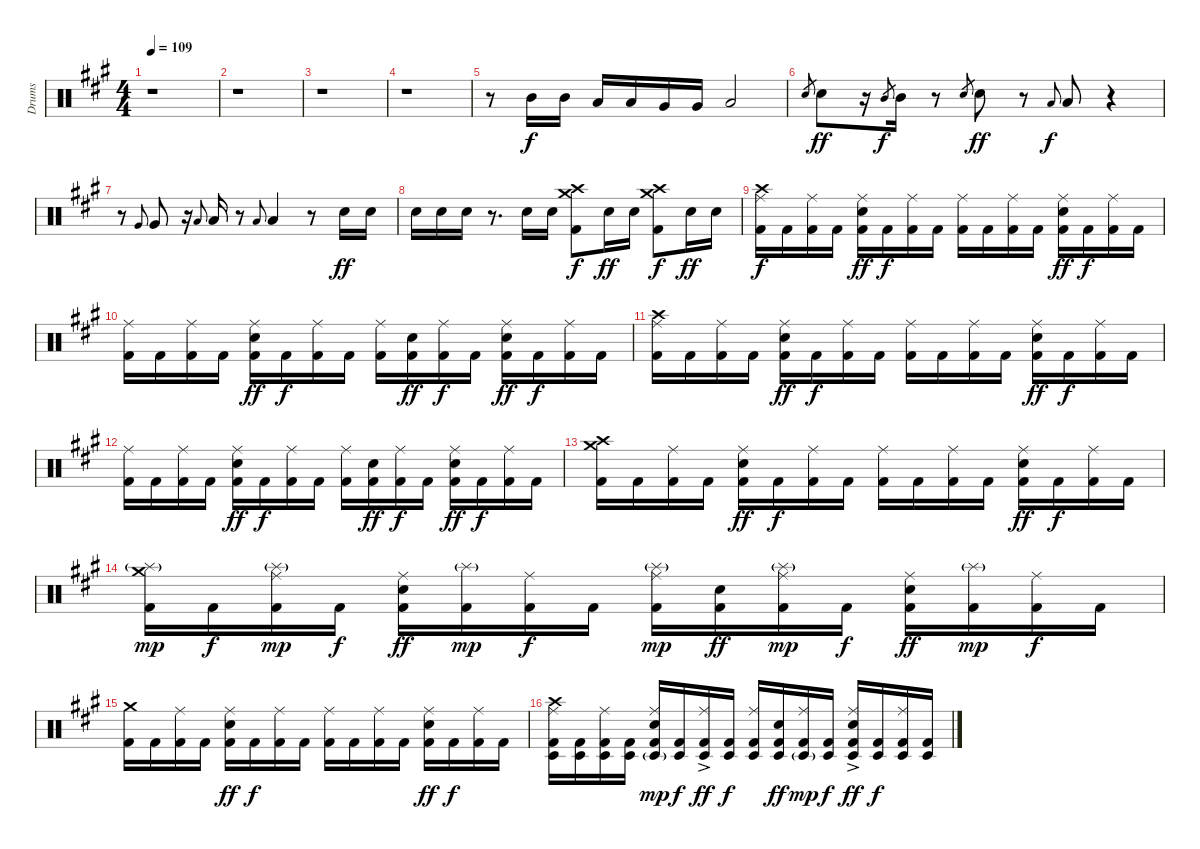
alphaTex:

\track ("Drums" "Drums") {instrument percussion}
\staff {score}
\articulation defaults
\ts (4 4)
\tempo 109
\clef neutral
\ks f#minor
r.1{dy f} |
r.1 |
r.1 |
r.1 |
r.8 "Mid Tom (hit)".16 "Mid Tom (hit)".16 "Low Tom (hit)".16 "Low Tom (hit)".16 "Very Low Tom (hit)".16 "Very Low Tom (hit)".16 "Low Floor Tom (hit)".2 |
"Electric Snare (hit)".8{gr} "Electric Snare (hit)".8{dy ff} r.16 "Mid Tom (hit)".8{gr dy f} "Mid Tom (hit)".16 r.8 "Electric Snare (hit)".8{gr} "Electric Snare (hit)".8{dy ff} r.8 "Low Tom (hit)".8{gr onbeat dy f} "Low Tom (hit)".8 r.4 |
r.8 "Very Low Tom (hit)".8{gr onbeat} "Very Low Tom (hit)".8 r.16 "Low Floor Tom (hit)".8{gr onbeat} "Low Floor Tom (hit)".16 r.8 "Low Floor Tom (hit)".8{gr onbeat} "Low Floor Tom (hit)".4 r.8 "Electric Snare (hit)".16{dy ff} "Electric Snare (hit)".16 |
"Electric Snare (hit)".16 "Electric Snare (hit)".16 "Electric Snare (hit)".16 r.8{d} "Electric Snare (hit)".16 "Electric Snare (hit)".16 ("Crash medium (hit)" "Crash high (hit)" "Kick (hit) 2").8{dy f} "Electric Snare (hit)".16{dy ff} "Electric Snare (hit)".16 ("Crash medium (hit)" "Crash high (hit)" "Kick (hit) 2").8{dy f} "Electric Snare (hit)".16{dy ff} "Electric Snare (hit)".16 |
("Ride (middle)" "Crash high (hit)" "Kick (hit) 2").16{dy f} "Kick (hit) 2".16 ("Ride (middle)" "Kick (hit) 2").16 "Kick (hit) 2".16 ("Ride (middle)" "Electric Snare (hit)" "Kick (hit) 2").16{dy ff} "Kick (hit) 2".16{dy f} ("Ride (middle)" "Kick (hit) 2").16 "Kick (hit) 2".16 ("Ride (middle)" "Kick (hit) 2").16 "Kick (hit) 2".16 ("Ride (middle)" "Kick (hit) 2").16 "Kick (hit) 2".16 ("Ride (middle)" "Electric Snare (hit)" "Kick (hit) 2").16{dy ff} "Kick (hit) 2".16{dy f} ("Ride (middle)" "Kick (hit) 2").16 "Kick (hit) 2".16 |
("Ride (middle)" "Kick (hit) 2").16 "Kick (hit) 2".16 ("Ride (middle)" "Kick (hit) 2").16 "Kick (hit) 2".16 ("Ride (middle)" "Electric Snare (hit)" "Kick (hit) 2").16{dy ff} "Kick (hit) 2".16{dy f} ("Ride (middle)" "Kick (hit) 2").16 "Kick (hit) 2".16 ("Ride (middle)" "Kick (hit) 2").16 ("Electric Snare (hit)" "Kick (hit) 2").16{dy ff} ("Ride (middle)" "Kick (hit) 2").16{dy f} "Kick (hit) 2".16 ("Ride (middle)" "Electric Snare (hit)" "Kick (hit) 2").16{dy ff} "Kick (hit) 2".16{dy f} ("Ride (middle)" "Kick (hit) 2").16 "Kick (hit) 2".16 |
("Ride (middle)" "Crash high (hit)" "Kick (hit) 2").16 "Kick (hit) 2".16 ("Ride (middle)" "Kick (hit) 2").16 "Kick (hit) 2".16 ("Ride (middle)" "Electric Snare (hit)" "Kick (hit) 2").16{dy ff} "Kick (hit) 2".16{dy f} ("Ride (middle)" "Kick (hit) 2").16 "Kick (hit) 2".16 ("Ride (middle)" "Kick (hit) 2").16 "Kick (hit) 2".16 ("Ride (middle)" "Kick (hit) 2").16 "Kick (hit) 2".16 ("Ride (middle)" "Electric Snare (hit)" "Kick (hit) 2").16{dy ff} "Kick (hit) 2".16{dy f} ("Ride (middle)" "Kick (hit) 2").16 "Kick (hit) 2".16 |
("Ride (middle)" "Kick (hit) 2").16 "Kick (hit) 2".16 ("Ride (middle)" "Kick (hit) 2").16 "Kick (hit) 2".16 ("Ride (middle)" "Electric Snare (hit)" "Kick (hit) 2").16{dy ff} "Kick (hit) 2".16{dy f} ("Ride (middle)" "Kick (hit) 2").16 "Kick (hit) 2".16 ("Ride (middle)" "Kick (hit) 2").16 ("Electric Snare (hit)" "Kick (hit) 2").16{dy ff} ("Ride (middle)" "Kick (hit) 2").16{dy f} "Kick (hit) 2".16 ("Ride (middle)" "Electric Snare (hit)" "Kick (hit) 2").16{dy ff} "Kick (hit) 2".16{dy f} ("Ride (middle)" "Kick (hit) 2").16 "Kick (hit) 2".16 |
("Crash medium (hit)" "Crash high (hit)" "Kick (hit) 2").16 "Kick (hit) 2".16 ("Ride (middle)" "Kick (hit) 2").16 "Kick (hit) 2".16 ("Ride (middle)" "Electric Snare (hit)" "Kick (hit) 2").16{dy ff} "Kick (hit) 2".16{dy f} ("Ride (middle)" "Kick (hit) 2").16 "Kick (hit) 2".16 ("Ride (middle)" "Kick (hit) 2").16 "Kick (hit) 2".16 ("Ride (middle)" "Kick (hit) 2").16 "Kick (hit) 2".16 ("Ride (middle)" "Electric Snare (hit)" "Kick (hit) 2").16{dy ff} "Kick (hit) 2".16{dy f} ("Ride (middle)" "Kick (hit) 2").16 "Kick (hit) 2".16 |
("Crash medium (hit)" "Splash (hit)"{g} "Kick (hit) 2").16{dy mp} "Kick (hit) 2".16{dy f} ("Ride (middle)" "Splash (hit)"{g} "Kick (hit) 2").16{dy mp} "Kick (hit) 2".16{dy f} ("Ride (middle)" "Electric Snare (hit)" "Kick (hit) 2").16{dy ff} ("Splash (hit)"{g} "Kick (hit) 2").16{dy mp} ("Ride (middle)" "Kick (hit) 2").16{dy f} "Kick (hit) 2".16 ("Ride (middle)" "Splash (hit)"{g} "Kick (hit) 2").16{dy mp} ("Electric Snare (hit)" "Kick (hit) 2").16{dy ff} ("Ride (middle)" "Splash (hit)"{g} "Kick (hit) 2").16{dy mp} "Kick (hit) 2".16{dy f} ("Ride (middle)" "Electric Snare (hit)" "Kick (hit) 2").16{dy ff} ("Splash (hit)"{g} "Kick (hit) 2").16{dy mp} ("Ride (middle)" "Kick (hit) 2").16{dy f} "Kick (hit) 2".16 |
("Crash medium (hit)" "Kick (hit) 2").16 "Kick (hit) 2".16 ("Ride (middle)" "Kick (hit) 2").16 "Kick (hit) 2".16 ("Ride (middle)" "Electric Snare (hit)" "Kick (hit) 2").16{dy ff} "Kick (hit) 2".16{dy f} ("Ride (middle)" "Kick (hit) 2").16 "Kick (hit) 2".16 ("Ride (middle)" "Kick (hit) 2").16 "Kick (hit) 2".16 ("Ride (middle)" "Kick (hit) 2").16 "Kick (hit) 2".16 ("Ride (middle)" "Electric Snare (hit)" "Kick (hit) 2").16{dy ff} "Kick (hit) 2".16{dy f} ("Ride (middle)" "Kick (hit) 2").16 "Kick (hit) 2".16 |
("Ride (middle)" "Crash high (hit)" "Timbale low (hit)" "Kick (hit) 2").16 ("Timbale low (hit)" "Kick (hit) 2").16 ("Ride (middle)" "Timbale low (hit)" "Kick (hit) 2").16 ("Timbale low (hit)" "Kick (hit) 2").16 ("Ride (middle)" "Electric Snare (hit)" "Timbale low (hit)"{g} "Kick (hit) 2").16{dy mp} ("Timbale low (hit)" "Kick (hit) 2").16{dy f} ("Ride (middle)" "Timbale low (hit)"{ac} "Kick (hit) 2").16{dy ff} ("Timbale low (hit)" "Kick (hit) 2").16{dy f} ("Ride (middle)" "Timbale low (hit)" "Kick (hit) 2").16 ("Electric Snare (hit)" "Timbale low (hit)" "Kick (hit) 2").16{dy ff} ("Ride (middle)" "Timbale low (hit)"{g} "Kick (hit) 2").16{dy mp} ("Timbale low (hit)" "Kick (hit) 2").16{dy f} ("Ride (middle)" "Electric Snare (hit)" "Timbale low (hit)"{ac} "Kick (hit) 2").16{dy ff} ("Timbale low (hit)" "Kick (hit) 2").16{dy f} ("Ride (middle)" "Timbale low (hit)" "Kick (hit) 2").16 ("Timbale low (hit)" "Kick (hit) 2").16
